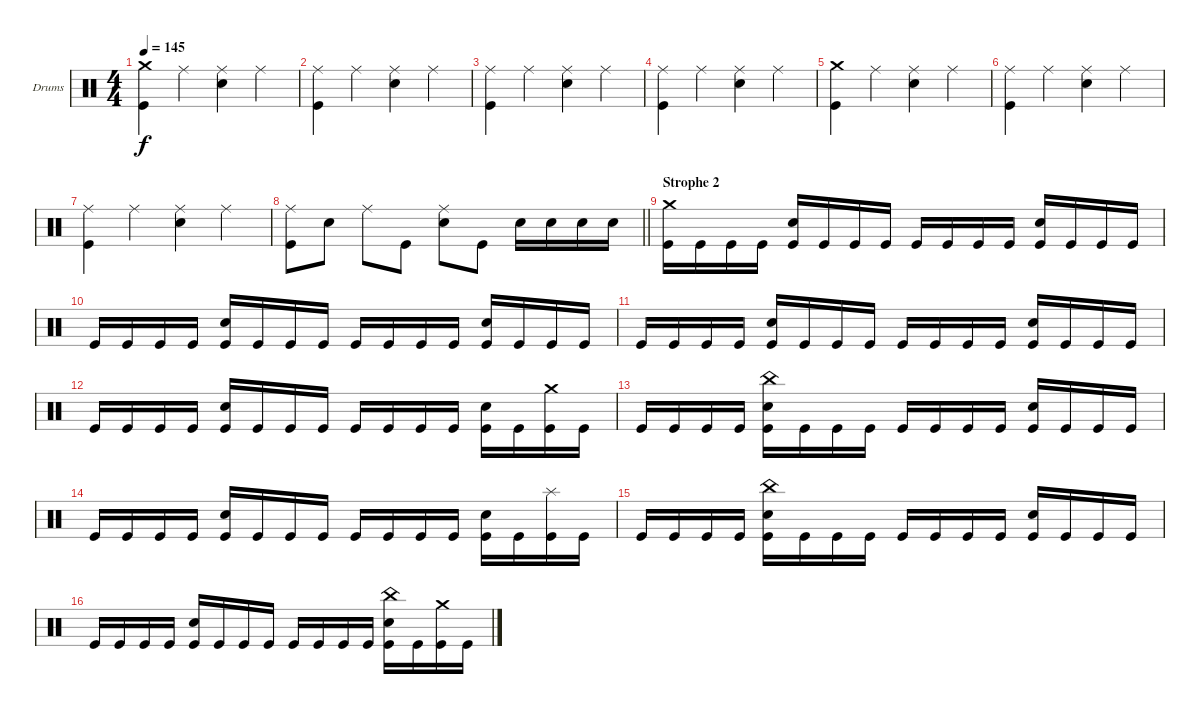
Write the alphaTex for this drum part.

\bracketExtendMode groupsimilarinstruments
\firstSystemTrackNameOrientation horizontal
\otherSystemsTrackNameOrientation horizontal
\track ("Drumkit" "Drums") {instrument percussion}
\staff {score}
\articulation defaults
\ts (4 4)
\tempo 145
\clef neutral
\ks c
("Crash medium (hit)" "Kick (hit)").4{dy f} "Ride (middle)".4 ("Ride (middle)" "Snare (hit) 2").4 "Ride (middle)".4 |
("Ride (middle)" "Kick (hit)").4 "Ride (middle)".4 ("Ride (middle)" "Snare (hit) 2").4 "Ride (middle)".4 |
("Ride (middle)" "Kick (hit)").4 "Ride (middle)".4 ("Ride (middle)" "Snare (hit) 2").4 "Ride (middle)".4 |
("Ride (middle)" "Kick (hit)").4 "Ride (middle)".4 ("Ride (middle)" "Snare (hit) 2").4 "Ride (middle)".4 |
("Crash medium (hit)" "Kick (hit)").4 "Ride (middle)".4 ("Ride (middle)" "Snare (hit) 2").4 "Ride (middle)".4 |
("Ride (middle)" "Kick (hit)").4 "Ride (middle)".4 ("Ride (middle)" "Snare (hit) 2").4 "Ride (middle)".4 |
("Ride (middle)" "Kick (hit)").4 "Ride (middle)".4 ("Ride (middle)" "Snare (hit) 2").4 "Ride (middle)".4 |
\barLineRight lightlight
("Ride (middle)" "Kick (hit)").8 "Snare (hit) 2".8 "Ride (middle)".8 "Kick (hit)".8 ("Ride (middle)" "Snare (hit) 2").8 "Kick (hit)".8 "Snare (hit) 2".16 "Snare (hit) 2".16 "Snare (hit) 2".16 "Snare (hit) 2".16 |
\section ("" "Strophe 2")
("Crash medium (hit)" "Kick (hit)").16 "Kick (hit)".16 "Kick (hit)".16 "Kick (hit)".16 ("Snare (hit) 2" "Kick (hit)").16 "Kick (hit)".16 "Kick (hit)".16 "Kick (hit)".16 "Kick (hit)".16 "Kick (hit)".16 "Kick (hit)".16 "Kick (hit)".16 ("Snare (hit) 2" "Kick (hit)").16 "Kick (hit)".16 "Kick (hit)".16 "Kick (hit)".16 |
"Kick (hit)".16 "Kick (hit)".16 "Kick (hit)".16 "Kick (hit)".16 ("Snare (hit) 2" "Kick (hit)").16 "Kick (hit)".16 "Kick (hit)".16 "Kick (hit)".16 "Kick (hit)".16 "Kick (hit)".16 "Kick (hit)".16 "Kick (hit)".16 ("Snare (hit) 2" "Kick (hit)").16 "Kick (hit)".16 "Kick (hit)".16 "Kick (hit)".16 |
"Kick (hit)".16 "Kick (hit)".16 "Kick (hit)".16 "Kick (hit)".16 ("Snare (hit) 2" "Kick (hit)").16 "Kick (hit)".16 "Kick (hit)".16 "Kick (hit)".16 "Kick (hit)".16 "Kick (hit)".16 "Kick (hit)".16 "Kick (hit)".16 ("Snare (hit) 2" "Kick (hit)").16 "Kick (hit)".16 "Kick (hit)".16 "Kick (hit)".16 |
"Kick (hit)".16 "Kick (hit)".16 "Kick (hit)".16 "Kick (hit)".16 ("Snare (hit) 2" "Kick (hit)").16 "Kick (hit)".16 "Kick (hit)".16 "Kick (hit)".16 "Kick (hit)".16 "Kick (hit)".16 "Kick (hit)".16 "Kick (hit)".16 ("Snare (hit) 2" "Kick (hit)").16 "Kick (hit)".16 ("Crash medium (hit)" "Kick (hit)").16 "Kick (hit)".16 |
"Kick (hit)".16 "Kick (hit)".16 "Kick (hit)".16 "Kick (hit)".16 ("China (hit)" "Snare (hit) 2" "Kick (hit)").16 "Kick (hit)".16 "Kick (hit)".16 "Kick (hit)".16 "Kick (hit)".16 "Kick (hit)".16 "Kick (hit)".16 "Kick (hit)".16 ("Snare (hit) 2" "Kick (hit)").16 "Kick (hit)".16 "Kick (hit)".16 "Kick (hit)".16 |
"Kick (hit)".16 "Kick (hit)".16 "Kick (hit)".16 "Kick (hit)".16 ("Snare (hit) 2" "Kick (hit)").16 "Kick (hit)".16 "Kick (hit)".16 "Kick (hit)".16 "Kick (hit)".16 "Kick (hit)".16 "Kick (hit)".16 "Kick (hit)".16 ("Snare (hit) 2" "Kick (hit)").16 "Kick (hit)".16 ("Splash (hit)" "Kick (hit)").16 "Kick (hit)".16 |
"Kick (hit)".16 "Kick (hit)".16 "Kick (hit)".16 "Kick (hit)".16 ("China (hit)" "Snare (hit) 2" "Kick (hit)").16 "Kick (hit)".16 "Kick (hit)".16 "Kick (hit)".16 "Kick (hit)".16 "Kick (hit)".16 "Kick (hit)".16 "Kick (hit)".16 ("Snare (hit) 2" "Kick (hit)").16 "Kick (hit)".16 "Kick (hit)".16 "Kick (hit)".16 |
"Kick (hit)".16 "Kick (hit)".16 "Kick (hit)".16 "Kick (hit)".16 ("Snare (hit) 2" "Kick (hit)").16 "Kick (hit)".16 "Kick (hit)".16 "Kick (hit)".16 "Kick (hit)".16 "Kick (hit)".16 "Kick (hit)".16 "Kick (hit)".16 ("China (hit)" "Snare (hit) 2" "Kick (hit)").16 "Kick (hit)".16 ("Crash medium (hit)" "Kick (hit)").16 "Kick (hit)".16
